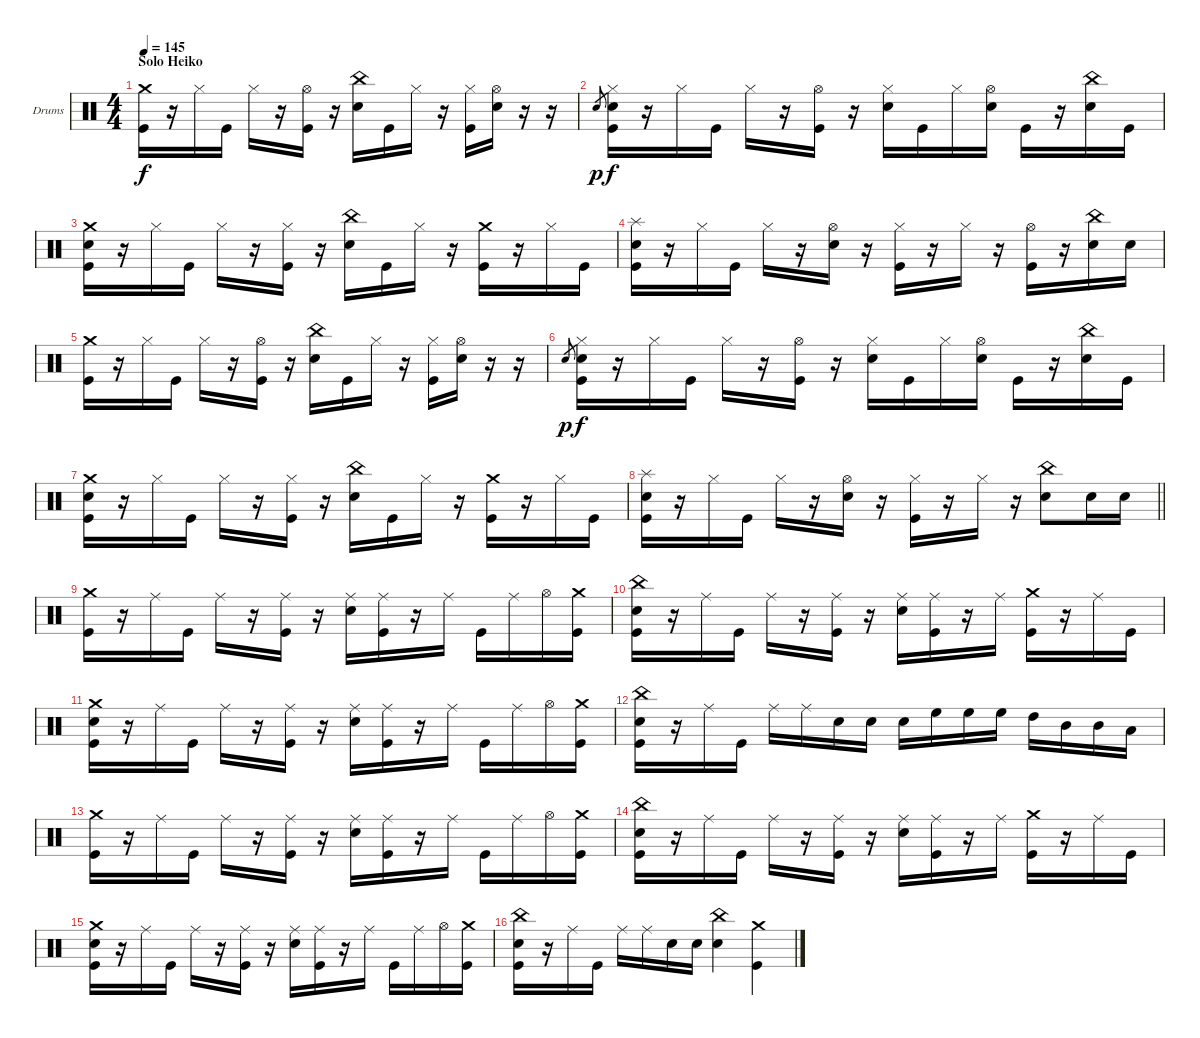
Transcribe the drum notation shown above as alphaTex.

\bracketExtendMode groupsimilarinstruments
\firstSystemTrackNameOrientation horizontal
\otherSystemsTrackNameOrientation horizontal
\track ("Drumkit" "Drums") {instrument percussion}
\staff {score}
\articulation defaults
\ts (4 4)
\section ("" "Solo Heiko")
\tempo 145
\clef neutral
\ks c
("Crash medium (hit)" "Kick (hit)").16{dy f} r.16 "Hi-Hat (closed)".16 "Kick (hit)".16 "Hi-Hat (closed)".16 r.16 ("Hi-Hat (open)" "Kick (hit)").16 r.16 ("China (hit)" "Snare (hit) 2").16 "Kick (hit)".16 "Hi-Hat (closed)".16 r.16 ("Hi-Hat (closed)" "Kick (hit)").16 ("Hi-Hat (open)" "Snare (hit) 2").16 r.16 r.16 |
"Snare (hit) 2".8{gr dy p} ("Hi-Hat (closed)" "Snare (hit) 2" "Kick (hit)").16{dy f} r.16 "Hi-Hat (closed)".16 "Kick (hit)".16 "Hi-Hat (closed)".16 r.16 ("Hi-Hat (open)" "Kick (hit)").16 r.16 ("Hi-Hat (closed)" "Snare (hit) 2").16 "Kick (hit)".16 "Hi-Hat (closed)".16 ("Hi-Hat (open)" "Snare (hit) 2").16 "Kick (hit)".16 r.16 ("China (hit)" "Snare (hit) 2").16 "Kick (hit)".16 |
("Crash medium (hit)" "Snare (hit) 2" "Kick (hit)").16 r.16 "Hi-Hat (closed)".16 "Kick (hit)".16 "Hi-Hat (closed)".16 r.16 ("Hi-Hat (closed)" "Kick (hit)").16 r.16 ("China (hit)" "Snare (hit) 2").16 "Kick (hit)".16 "Hi-Hat (closed)".16 r.16 ("Crash medium (hit)" "Kick (hit)").16 r.16 "Hi-Hat (closed)".16 "Kick (hit)".16 |
("Splash (hit)" "Snare (hit) 2" "Kick (hit)").16 r.16 "Hi-Hat (closed)".16 "Kick (hit)".16 "Hi-Hat (closed)".16 r.16 ("Hi-Hat (open)" "Snare (hit) 2").16 r.16 ("Hi-Hat (closed)" "Kick (hit)").16 r.16 "Hi-Hat (closed)".16 r.16 ("Hi-Hat (open)" "Kick (hit)").16 r.16 ("China (hit)" "Snare (hit) 2").16 "Snare (hit) 2".16 |
("Crash medium (hit)" "Kick (hit)").16 r.16 "Hi-Hat (closed)".16 "Kick (hit)".16 "Hi-Hat (closed)".16 r.16 ("Hi-Hat (open)" "Kick (hit)").16 r.16 ("China (hit)" "Snare (hit) 2").16 "Kick (hit)".16 "Hi-Hat (closed)".16 r.16 ("Hi-Hat (closed)" "Kick (hit)").16 ("Hi-Hat (open)" "Snare (hit) 2").16 r.16 r.16 |
"Snare (hit) 2".8{gr dy p} ("Hi-Hat (closed)" "Snare (hit) 2" "Kick (hit)").16{dy f} r.16 "Hi-Hat (closed)".16 "Kick (hit)".16 "Hi-Hat (closed)".16 r.16 ("Hi-Hat (open)" "Kick (hit)").16 r.16 ("Hi-Hat (closed)" "Snare (hit) 2").16 "Kick (hit)".16 "Hi-Hat (closed)".16 ("Hi-Hat (open)" "Snare (hit) 2").16 "Kick (hit)".16 r.16 ("China (hit)" "Snare (hit) 2").16 "Kick (hit)".16 |
("Crash medium (hit)" "Snare (hit) 2" "Kick (hit)").16 r.16 "Hi-Hat (closed)".16 "Kick (hit)".16 "Hi-Hat (closed)".16 r.16 ("Hi-Hat (closed)" "Kick (hit)").16 r.16 ("China (hit)" "Snare (hit) 2").16 "Kick (hit)".16 "Hi-Hat (closed)".16 r.16 ("Crash medium (hit)" "Kick (hit)").16 r.16 "Hi-Hat (closed)".16 "Kick (hit)".16 |
\barLineRight lightlight
("Splash (hit)" "Snare (hit) 2" "Kick (hit)").16 r.16 "Hi-Hat (closed)".16 "Kick (hit)".16 "Hi-Hat (closed)".16 r.16 ("Hi-Hat (open)" "Snare (hit) 2").16 r.16 ("Hi-Hat (closed)" "Kick (hit)").16 r.16 "Hi-Hat (closed)".16 r.16 ("China (hit)" "Snare (hit) 2").8 "Snare (hit) 2".16 "Snare (hit) 2".16 |
("Crash medium (hit)" "Kick (hit)").16 r.16 "Ride (middle)".16 "Kick (hit)".16 "Ride (middle)".16 r.16 ("Ride (middle)" "Kick (hit)").16 r.16 ("Ride (middle)" "Snare (hit) 2").16 ("Ride (middle)" "Kick (hit)").16 r.16 "Ride (middle)".16 "Kick (hit)".16 "Ride (middle)".16 "Hi-Hat (open)".16 ("Crash medium (hit)" "Kick (hit)").16 |
("China (hit)" "Snare (hit) 2" "Kick (hit)").16 r.16 "Ride (middle)".16 "Kick (hit)".16 "Ride (middle)".16 r.16 ("Ride (middle)" "Kick (hit)").16 r.16 ("Ride (middle)" "Snare (hit) 2").16 ("Ride (middle)" "Kick (hit)").16 r.16 "Ride (middle)".16 ("Crash medium (hit)" "Kick (hit)").16 r.16 "Ride (middle)".16 "Kick (hit)".16 |
("Crash medium (hit)" "Snare (hit) 2" "Kick (hit)").16 r.16 "Ride (middle)".16 "Kick (hit)".16 "Ride (middle)".16 r.16 ("Ride (middle)" "Kick (hit)").16 r.16 ("Ride (middle)" "Snare (hit) 2").16 ("Ride (middle)" "Kick (hit)").16 r.16 "Ride (middle)".16 "Kick (hit)".16 "Ride (middle)".16 "Hi-Hat (open)".16 ("Crash medium (hit)" "Kick (hit)").16 |
("China (hit)" "Snare (hit) 2" "Kick (hit)").16 r.16 "Ride (middle)".16 "Kick (hit)".16 "Ride (middle)".16 "Ride (middle)".16 "Snare (hit) 2".16 "Snare (hit) 2".16 "Snare (hit) 2".16 "High Floor Tom (hit)".16 "High Floor Tom (hit)".16 "High Floor Tom (hit)".16 "High Tom (hit)".16 "Mid Tom (hit)".16 "Mid Tom (hit)".16 "Low Tom (hit)".16 |
("Crash medium (hit)" "Kick (hit)").16 r.16 "Ride (middle)".16 "Kick (hit)".16 "Ride (middle)".16 r.16 ("Ride (middle)" "Kick (hit)").16 r.16 ("Ride (middle)" "Snare (hit) 2").16 ("Ride (middle)" "Kick (hit)").16 r.16 "Ride (middle)".16 "Kick (hit)".16 "Ride (middle)".16 "Hi-Hat (open)".16 ("Crash medium (hit)" "Kick (hit)").16 |
("China (hit)" "Snare (hit) 2" "Kick (hit)").16 r.16 "Ride (middle)".16 "Kick (hit)".16 "Ride (middle)".16 r.16 ("Ride (middle)" "Kick (hit)").16 r.16 ("Ride (middle)" "Snare (hit) 2").16 ("Ride (middle)" "Kick (hit)").16 r.16 "Ride (middle)".16 ("Crash medium (hit)" "Kick (hit)").16 r.16 "Ride (middle)".16 "Kick (hit)".16 |
("Crash medium (hit)" "Snare (hit) 2" "Kick (hit)").16 r.16 "Ride (middle)".16 "Kick (hit)".16 "Ride (middle)".16 r.16 ("Ride (middle)" "Kick (hit)").16 r.16 ("Ride (middle)" "Snare (hit) 2").16 ("Ride (middle)" "Kick (hit)").16 r.16 "Ride (middle)".16 "Kick (hit)".16 "Ride (middle)".16 "Hi-Hat (open)".16 ("Crash medium (hit)" "Kick (hit)").16 |
("China (hit)" "Snare (hit) 2" "Kick (hit)").16 r.16 "Ride (middle)".16 "Kick (hit)".16 "Ride (middle)".16 "Ride (middle)".16 "Snare (hit) 2".16 "Snare (hit) 2".16 ("China (hit)" "Snare (hit) 2").4 ("Crash medium (hit)" "Kick (hit)").4
